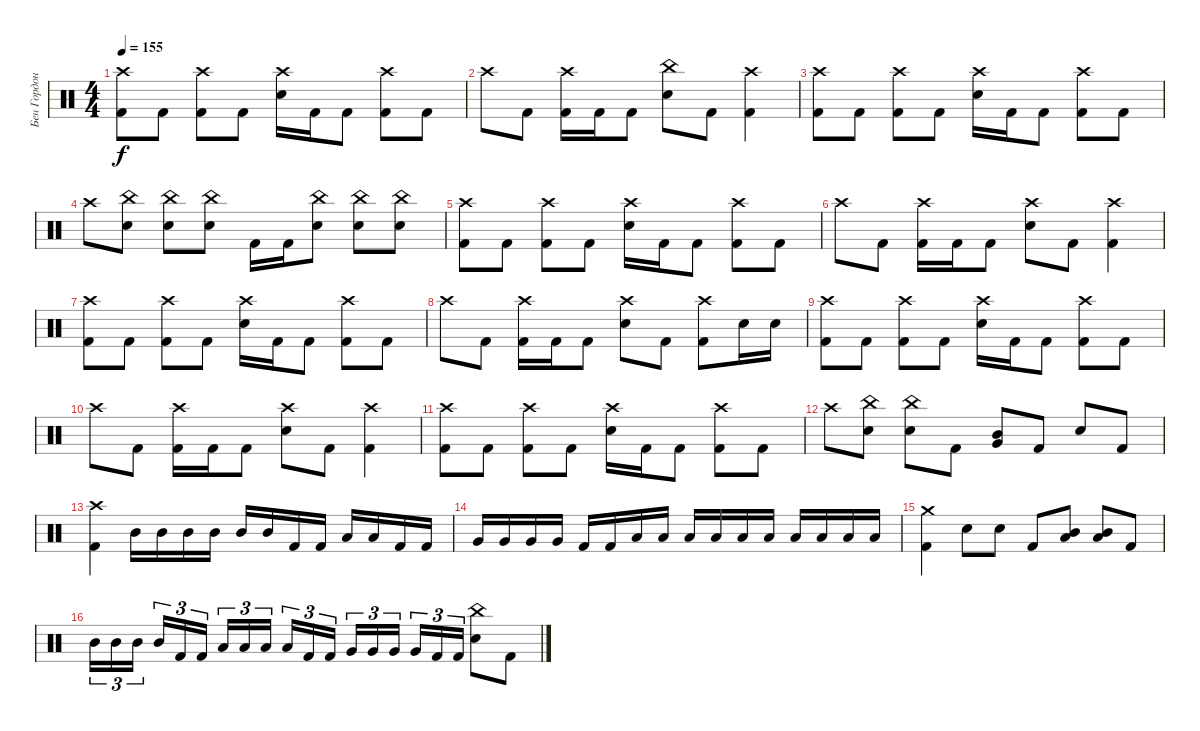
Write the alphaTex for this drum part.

\track ("Бен Гордон" "Бен Гордон") {instrument percussion}
\staff {score}
\articulation defaults
\ts (4 4)
\tempo 155
\clef neutral
\ks c
("Crash high (hit)" "Kick (hit) 2").8{dy f} "Kick (hit) 2".8 ("Crash high (hit)" "Kick (hit) 2").8 "Kick (hit) 2".8 ("Crash high (hit)" "Electric Snare (hit)").16 "Kick (hit) 2".16 "Kick (hit) 2".8 ("Crash high (hit)" "Kick (hit) 2").8 "Kick (hit) 2".8 |
"Crash high (hit)".8 "Kick (hit) 2".8 ("Crash high (hit)" "Kick (hit) 2").16 "Kick (hit) 2".16 "Kick (hit) 2".8 ("China (hit)" "Electric Snare (hit)").8 "Kick (hit) 2".8 ("Crash high (hit)" "Kick (hit) 2").4 |
("Crash high (hit)" "Kick (hit) 2").8 "Kick (hit) 2".8 ("Crash high (hit)" "Kick (hit) 2").8 "Kick (hit) 2".8 ("Crash high (hit)" "Electric Snare (hit)").16 "Kick (hit) 2".16 "Kick (hit) 2".8 ("Crash high (hit)" "Kick (hit) 2").8 "Kick (hit) 2".8 |
"Crash high (hit)".8 ("China (hit)" "Electric Snare (hit)").8 ("China (hit)" "Electric Snare (hit)").8 ("China (hit)" "Electric Snare (hit)").8 "Kick (hit) 2".16 "Kick (hit) 2".16 ("China (hit)" "Electric Snare (hit)").8 ("China (hit)" "Electric Snare (hit)").8 ("China (hit)" "Electric Snare (hit)").8 |
("Crash high (hit)" "Kick (hit) 2").8 "Kick (hit) 2".8 ("Crash high (hit)" "Kick (hit) 2").8 "Kick (hit) 2".8 ("Crash high (hit)" "Electric Snare (hit)").16 "Kick (hit) 2".16 "Kick (hit) 2".8 ("Crash high (hit)" "Kick (hit) 2").8 "Kick (hit) 2".8 |
"Crash high (hit)".8 "Kick (hit) 2".8 ("Crash high (hit)" "Kick (hit) 2").16 "Kick (hit) 2".16 "Kick (hit) 2".8 ("Crash high (hit)" "Electric Snare (hit)").8 "Kick (hit) 2".8 ("Crash high (hit)" "Kick (hit) 2").4 |
("Crash high (hit)" "Kick (hit) 2").8 "Kick (hit) 2".8 ("Crash high (hit)" "Kick (hit) 2").8 "Kick (hit) 2".8 ("Crash high (hit)" "Electric Snare (hit)").16 "Kick (hit) 2".16 "Kick (hit) 2".8 ("Crash high (hit)" "Kick (hit) 2").8 "Kick (hit) 2".8 |
"Crash high (hit)".8 "Kick (hit) 2".8 ("Crash high (hit)" "Kick (hit) 2").16 "Kick (hit) 2".16 "Kick (hit) 2".8 ("Crash high (hit)" "Electric Snare (hit)").8 "Kick (hit) 2".8 ("Crash high (hit)" "Kick (hit) 2").8 "Electric Snare (hit)".16 "Electric Snare (hit)".16 |
("Crash high (hit)" "Kick (hit) 2").8 "Kick (hit) 2".8 ("Crash high (hit)" "Kick (hit) 2").8 "Kick (hit) 2".8 ("Crash high (hit)" "Electric Snare (hit)").16 "Kick (hit) 2".16 "Kick (hit) 2".8 ("Crash high (hit)" "Kick (hit) 2").8 "Kick (hit) 2".8 |
"Crash high (hit)".8 "Kick (hit) 2".8 ("Crash high (hit)" "Kick (hit) 2").16 "Kick (hit) 2".16 "Kick (hit) 2".8 ("Crash high (hit)" "Electric Snare (hit)").8 "Kick (hit) 2".8 ("Crash high (hit)" "Kick (hit) 2").4 |
("Crash high (hit)" "Kick (hit) 2").8 "Kick (hit) 2".8 ("Crash high (hit)" "Kick (hit) 2").8 "Kick (hit) 2".8 ("Crash high (hit)" "Electric Snare (hit)").16 "Kick (hit) 2".16 "Kick (hit) 2".8 ("Crash high (hit)" "Kick (hit) 2").8 "Kick (hit) 2".8 |
"Crash high (hit)".8 ("China (hit)" "Electric Snare (hit)").8 ("China (hit)" "Electric Snare (hit)").8 "Kick (hit) 2".8 ("Mid Tom (hit)" "Very Low Tom (hit)").8 "Kick (hit) 2".8 "Electric Snare (hit)".8 "Kick (hit) 2".8 |
("Crash high (hit)" "Kick (hit) 2").4 "Mid Tom (hit)".16 "Mid Tom (hit)".16 "Mid Tom (hit)".16 "Mid Tom (hit)".16 "Mid Tom (hit)".16 "Mid Tom (hit)".16 "Kick (hit) 2".16 "Kick (hit) 2".16 "Low Tom (hit)".16 "Low Tom (hit)".16 "Kick (hit) 2".16 "Kick (hit) 2".16 |
"Very Low Tom (hit)".16 "Very Low Tom (hit)".16 "Very Low Tom (hit)".16 "Very Low Tom (hit)".16 "Kick (hit) 2".16 "Kick (hit) 2".16 "Low Floor Tom (hit)".16 "Low Floor Tom (hit)".16 "Low Floor Tom (hit)".16 "Low Floor Tom (hit)".16 "Low Floor Tom (hit)".16 "Low Floor Tom (hit)".16 "Low Floor Tom (hit)".16 "Low Floor Tom (hit)".16 "Low Floor Tom (hit)".16 "Low Floor Tom (hit)".16 |
("Crash medium (hit)" "Kick (hit) 2").4 "Electric Snare (hit)".8 "Electric Snare (hit)".8 "Kick (hit) 2".8 ("Low Tom (hit)" "Mid Tom (hit)").8 ("Low Tom (hit)" "Mid Tom (hit)").8 "Kick (hit) 2".8 |
"Mid Tom (hit)".16{tu (3 2)} "Mid Tom (hit)".16{tu (3 2)} "Mid Tom (hit)".16{tu (3 2) beam splitsecondary} "Mid Tom (hit)".16{tu (3 2)} "Kick (hit) 2".16{tu (3 2)} "Kick (hit) 2".16{tu (3 2)} "Low Tom (hit)".16{tu (3 2)} "Low Tom (hit)".16{tu (3 2)} "Low Tom (hit)".16{tu (3 2) beam splitsecondary} "Low Tom (hit)".16{tu (3 2)} "Kick (hit) 2".16{tu (3 2)} "Kick (hit) 2".16{tu (3 2)} "Very Low Tom (hit)".16{tu (3 2)} "Very Low Tom (hit)".16{tu (3 2)} "Very Low Tom (hit)".16{tu (3 2) beam splitsecondary} "Very Low Tom (hit)".16{tu (3 2)} "Kick (hit) 2".16{tu (3 2)} "Kick (hit) 2".16{tu (3 2)} ("China (hit)" "Electric Snare (hit)").8 "Kick (hit) 2".8
